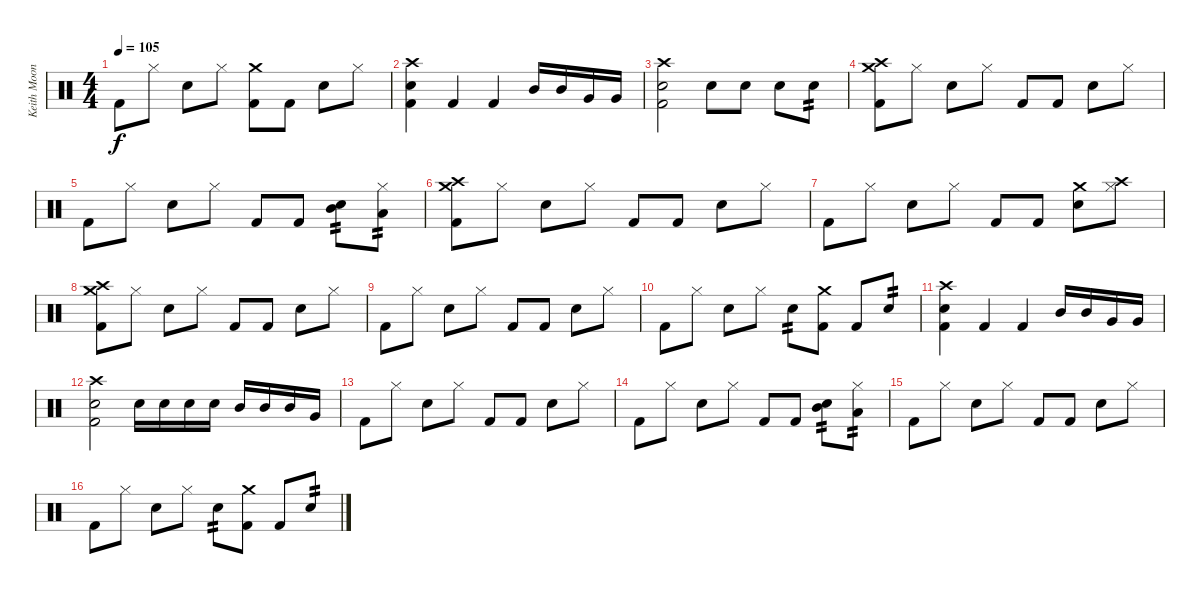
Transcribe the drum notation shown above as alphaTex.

\track ("Keith Moon" "Keith Moon") {instrument percussion}
\staff {score}
\articulation defaults
\ts (4 4)
\tempo 105
\clef neutral
\ks c "Kick (hit) 2".8{dy f} "Hi-Hat (closed)".8 "Electric Snare (hit)".8 "Hi-Hat (closed)".8
("Crash medium (hit)" "Kick (hit) 2").8 "Kick (hit) 2".8 "Electric Snare (hit)".8 "Hi-Hat (closed)".8 |
("Crash high (hit)" "Electric Snare (hit)" "Kick (hit) 2").4 "Kick (hit) 2".4 "Kick (hit) 2".4 "Mid Tom (hit)".16 "Mid Tom (hit)".16 "Very Low Tom (hit)".16 "Very Low Tom (hit)".16 |
("Crash high (hit)" "Electric Snare (hit)" "Kick (hit) 2").2 "Electric Snare (hit)".8 "Electric Snare (hit)".8 "Electric Snare (hit)".8 "Electric Snare (hit)".8{tp 2} |
("Crash high (hit)" "Crash medium (hit)" "Kick (hit) 2").8 "Hi-Hat (closed)".8 "Electric Snare (hit)".8 "Hi-Hat (closed)".8 "Kick (hit) 2".8 "Kick (hit) 2".8 "Electric Snare (hit)".8 "Hi-Hat (closed)".8 |
"Kick (hit) 2".8 "Hi-Hat (closed)".8 "Electric Snare (hit)".8 "Hi-Hat (closed)".8 "Kick (hit) 2".8 "Kick (hit) 2".8 ("Electric Snare (hit)" "Mid Tom (hit)").8{tp 2} ("Hi-Hat (closed)" "Low Floor Tom (hit)").8{tp 2} |
("Crash high (hit)" "Crash medium (hit)" "Kick (hit) 2").8 "Hi-Hat (closed)".8 "Electric Snare (hit)".8 "Hi-Hat (closed)".8 "Kick (hit) 2".8 "Kick (hit) 2".8 "Electric Snare (hit)".8 "Hi-Hat (closed)".8 |
"Kick (hit) 2".8 "Hi-Hat (closed)".8 "Electric Snare (hit)".8 "Hi-Hat (closed)".8 "Kick (hit) 2".8 "Kick (hit) 2".8 ("Electric Snare (hit)" "Crash medium (hit)").8 ("Hi-Hat (closed)" "Crash high (hit)").8 |
("Crash high (hit)" "Crash medium (hit)" "Kick (hit) 2").8 "Hi-Hat (closed)".8 "Electric Snare (hit)".8 "Hi-Hat (closed)".8 "Kick (hit) 2".8 "Kick (hit) 2".8 "Electric Snare (hit)".8 "Hi-Hat (closed)".8 |
"Kick (hit) 2".8 "Hi-Hat (closed)".8 "Electric Snare (hit)".8 "Hi-Hat (closed)".8 "Kick (hit) 2".8 "Kick (hit) 2".8 "Electric Snare (hit)".8 "Hi-Hat (closed)".8 |
"Kick (hit) 2".8 "Hi-Hat (closed)".8 "Electric Snare (hit)".8 "Hi-Hat (closed)".8 "Electric Snare (hit)".8{tp 2} ("Crash medium (hit)" "Kick (hit) 2").8 "Kick (hit) 2".8 "Electric Snare (hit)".8{tp 2} |
("Crash high (hit)" "Electric Snare (hit)" "Kick (hit) 2").4 "Kick (hit) 2".4 "Kick (hit) 2".4 "Mid Tom (hit)".16 "Mid Tom (hit)".16 "Very Low Tom (hit)".16 "Very Low Tom (hit)".16 |
("Crash high (hit)" "Electric Snare (hit)" "Kick (hit) 2").2 "Electric Snare (hit)".16 "Electric Snare (hit)".16 "Electric Snare (hit)".16 "Electric Snare (hit)".16 "Mid Tom (hit)".16 "Mid Tom (hit)".16 "Mid Tom (hit)".16 "Very Low Tom (hit)".16 |
"Kick (hit) 2".8 "Hi-Hat (closed)".8 "Electric Snare (hit)".8 "Hi-Hat (closed)".8 "Kick (hit) 2".8 "Kick (hit) 2".8 "Electric Snare (hit)".8 "Hi-Hat (closed)".8 |
"Kick (hit) 2".8 "Hi-Hat (closed)".8 "Electric Snare (hit)".8 "Hi-Hat (closed)".8 "Kick (hit) 2".8 "Kick (hit) 2".8 ("Electric Snare (hit)" "Mid Tom (hit)").8{tp 2} ("Hi-Hat (closed)" "Low Floor Tom (hit)").8{tp 2} |
"Kick (hit) 2".8 "Hi-Hat (closed)".8 "Electric Snare (hit)".8 "Hi-Hat (closed)".8 "Kick (hit) 2".8 "Kick (hit) 2".8 "Electric Snare (hit)".8 "Hi-Hat (closed)".8 |
"Kick (hit) 2".8 "Hi-Hat (closed)".8 "Electric Snare (hit)".8 "Hi-Hat (closed)".8 "Electric Snare (hit)".8{tp 2} ("Crash medium (hit)" "Kick (hit) 2").8 "Kick (hit) 2".8 "Electric Snare (hit)".8{tp 2}
